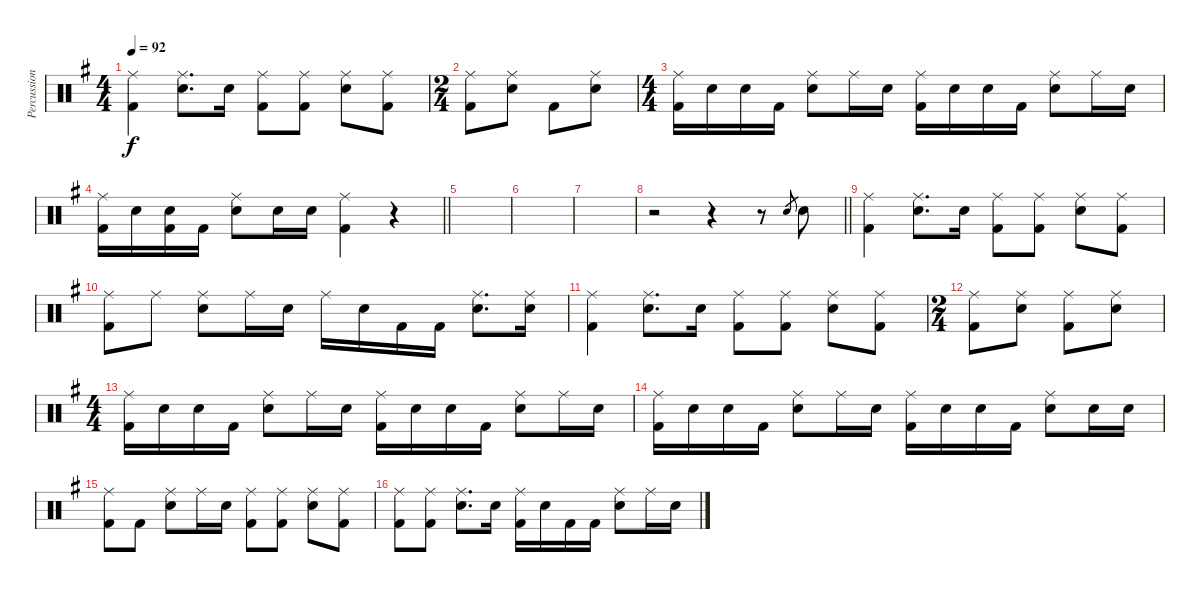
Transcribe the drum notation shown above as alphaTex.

\track ("Percussion" "Percussion") {instrument percussion}
\staff {score}
\articulation defaults
\ts (4 4)
\tempo 92
\clef neutral
\ks g
("Ride (middle)" "Kick (hit) 2").4{dy f} ("Ride (middle)" "Snare (hit) 2").8{d} "Snare (hit) 2".16 ("Ride (middle)" "Kick (hit) 2").8 ("Ride (middle)" "Kick (hit) 2").8 ("Ride (middle)" "Snare (hit) 2").8 ("Ride (middle)" "Kick (hit) 2").8 |
\ts (2 4)
("Ride (middle)" "Kick (hit) 2").8 ("Ride (middle)" "Snare (hit) 2").8 "Kick (hit) 2".8 ("Ride (middle)" "Snare (hit) 2").8 |
\ts (4 4)
("Ride (middle)" "Kick (hit) 2").16 "Snare (hit) 2".16 "Snare (hit) 2".16 "Kick (hit) 2".16 ("Ride (middle)" "Snare (hit) 2").8 "Ride (middle)".16 "Snare (hit) 2".16 ("Ride (middle)" "Kick (hit) 2").16 "Snare (hit) 2".16 "Snare (hit) 2".16 "Kick (hit) 2".16 ("Ride (middle)" "Snare (hit) 2").8 "Ride (middle)".16 "Snare (hit) 2".16 |
\barLineRight lightlight
("Ride (middle)" "Kick (hit) 2").16 "Snare (hit) 2".16 ("Snare (hit) 2" "Kick (hit) 2").16 "Kick (hit) 2".16 ("Ride (middle)" "Snare (hit) 2").8 "Snare (hit) 2".16 "Snare (hit) 2".16 ("Ride (middle)" "Kick (hit) 2").4 r.4 |
|
|
|
\barLineRight lightlight
r.2 r.4 r.8 "Snare (hit) 2".8{gr} "Snare (hit) 2".8 |
("Ride (middle)" "Kick (hit) 2").4 ("Ride (middle)" "Snare (hit) 2").8{d} "Snare (hit) 2".16 ("Ride (middle)" "Kick (hit) 2").8 ("Ride (middle)" "Kick (hit) 2").8 ("Ride (middle)" "Snare (hit) 2").8 ("Ride (middle)" "Kick (hit) 2").8 |
("Ride (middle)" "Kick (hit) 2").8 "Ride (middle)".8 ("Ride (middle)" "Snare (hit) 2").8 "Ride (middle)".16 "Snare (hit) 2".16 "Ride (middle)".16 "Snare (hit) 2".16 "Kick (hit) 2".16 "Kick (hit) 2".16 ("Ride (middle)" "Snare (hit) 2").8{d} ("Ride (middle)" "Snare (hit) 2").16 |
("Ride (middle)" "Kick (hit) 2").4 ("Ride (middle)" "Snare (hit) 2").8{d} "Snare (hit) 2".16 ("Ride (middle)" "Kick (hit) 2").8 ("Ride (middle)" "Kick (hit) 2").8 ("Ride (middle)" "Snare (hit) 2").8 ("Ride (middle)" "Kick (hit) 2").8 |
\ts (2 4)
("Ride (middle)" "Kick (hit) 2").8 ("Ride (middle)" "Snare (hit) 2").8 ("Ride (middle)" "Kick (hit) 2").8 ("Ride (middle)" "Snare (hit) 2").8 |
\ts (4 4)
("Ride (middle)" "Kick (hit) 2").16 "Snare (hit) 2".16 "Snare (hit) 2".16 "Kick (hit) 2".16 ("Ride (middle)" "Snare (hit) 2").8 "Ride (middle)".16 "Snare (hit) 2".16 ("Ride (middle)" "Kick (hit) 2").16 "Snare (hit) 2".16 "Snare (hit) 2".16 "Kick (hit) 2".16 ("Ride (middle)" "Snare (hit) 2").8 "Ride (middle)".16 "Snare (hit) 2".16 |
("Ride (middle)" "Kick (hit) 2").16 "Snare (hit) 2".16 "Snare (hit) 2".16 "Kick (hit) 2".16 ("Ride (middle)" "Snare (hit) 2").8 "Ride (middle)".16 "Snare (hit) 2".16 ("Ride (middle)" "Kick (hit) 2").16 "Snare (hit) 2".16 "Snare (hit) 2".16 "Kick (hit) 2".16 ("Ride (middle)" "Snare (hit) 2").8 "Snare (hit) 2".16 "Snare (hit) 2".16 |
("Ride (middle)" "Kick (hit) 2").8 "Kick (hit) 2".8 ("Ride (middle)" "Snare (hit) 2").8 "Ride (middle)".16 "Snare (hit) 2".16 ("Ride (middle)" "Kick (hit) 2").8 ("Ride (middle)" "Kick (hit) 2").8 ("Ride (middle)" "Snare (hit) 2").8 ("Ride (middle)" "Kick (hit) 2").8 |
("Ride (middle)" "Kick (hit) 2").8 ("Ride (middle)" "Kick (hit) 2").8 ("Ride (middle)" "Snare (hit) 2").8{d} "Snare (hit) 2".16 ("Ride (middle)" "Kick (hit) 2").16 "Snare (hit) 2".16 "Kick (hit) 2".16 "Kick (hit) 2".16 ("Ride (middle)" "Snare (hit) 2").8 "Ride (middle)".16 "Snare (hit) 2".16
